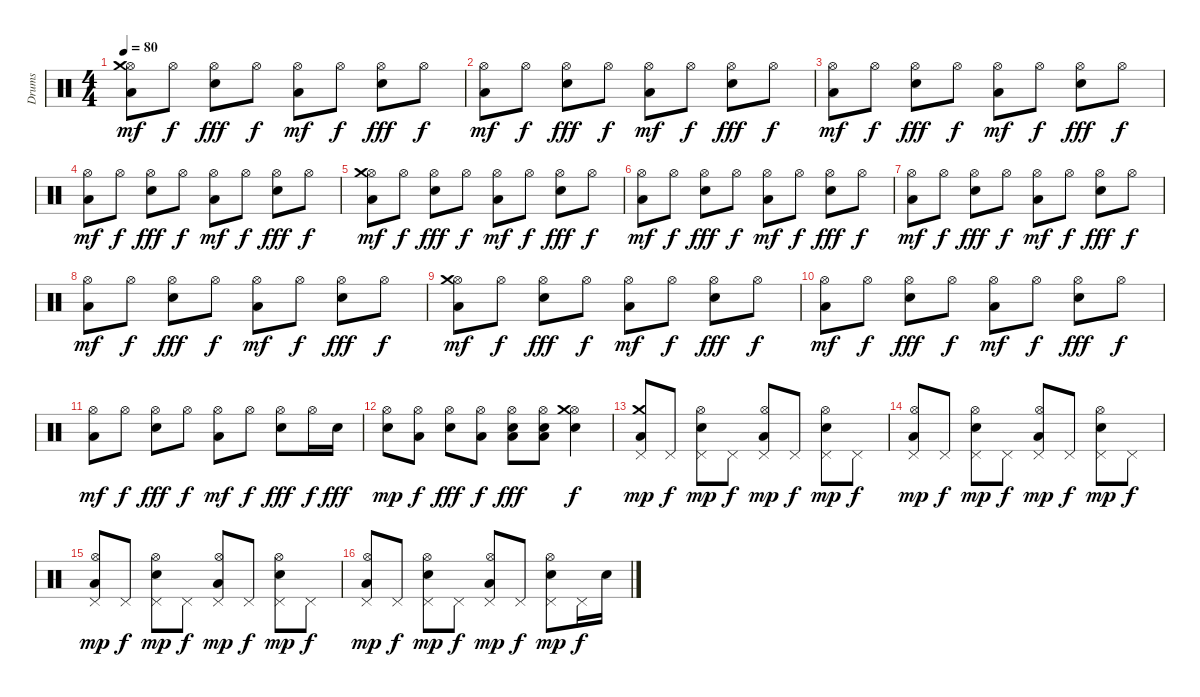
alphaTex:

\track ("Drums" "Drums") {instrument percussion}
\staff {score}
\articulation defaults
\ts (4 4)
\tempo 80
\clef neutral
\ks c
("Low Floor Tom (hit)" "Hi-Hat (open)" "Crash medium (hit)").8{dy mf} "Hi-Hat (open)".8{dy f} ("Electric Snare (hit)" "Hi-Hat (open)").8{dy fff} "Hi-Hat (open)".8{dy f} ("Low Floor Tom (hit)" "Hi-Hat (open)").8{dy mf} "Hi-Hat (open)".8{dy f} ("Electric Snare (hit)" "Hi-Hat (open)").8{dy fff} "Hi-Hat (open)".8{dy f} |
("Low Floor Tom (hit)" "Hi-Hat (open)").8{dy mf} "Hi-Hat (open)".8{dy f} ("Electric Snare (hit)" "Hi-Hat (open)").8{dy fff} "Hi-Hat (open)".8{dy f} ("Low Floor Tom (hit)" "Hi-Hat (open)").8{dy mf} "Hi-Hat (open)".8{dy f} ("Electric Snare (hit)" "Hi-Hat (open)").8{dy fff} "Hi-Hat (open)".8{dy f} |
("Low Floor Tom (hit)" "Hi-Hat (open)").8{dy mf} "Hi-Hat (open)".8{dy f} ("Electric Snare (hit)" "Hi-Hat (open)").8{dy fff} "Hi-Hat (open)".8{dy f} ("Low Floor Tom (hit)" "Hi-Hat (open)").8{dy mf} "Hi-Hat (open)".8{dy f} ("Electric Snare (hit)" "Hi-Hat (open)").8{dy fff} "Hi-Hat (open)".8{dy f} |
("Low Floor Tom (hit)" "Hi-Hat (open)").8{dy mf} "Hi-Hat (open)".8{dy f} ("Electric Snare (hit)" "Hi-Hat (open)").8{dy fff} "Hi-Hat (open)".8{dy f} ("Low Floor Tom (hit)" "Hi-Hat (open)").8{dy mf} "Hi-Hat (open)".8{dy f} ("Electric Snare (hit)" "Hi-Hat (open)").8{dy fff} "Hi-Hat (open)".8{dy f} |
("Low Floor Tom (hit)" "Hi-Hat (open)" "Crash medium (hit)").8{dy mf} "Hi-Hat (open)".8{dy f} ("Electric Snare (hit)" "Hi-Hat (open)").8{dy fff} "Hi-Hat (open)".8{dy f} ("Low Floor Tom (hit)" "Hi-Hat (open)").8{dy mf} "Hi-Hat (open)".8{dy f} ("Electric Snare (hit)" "Hi-Hat (open)").8{dy fff} "Hi-Hat (open)".8{dy f} |
("Low Floor Tom (hit)" "Hi-Hat (open)").8{dy mf} "Hi-Hat (open)".8{dy f} ("Electric Snare (hit)" "Hi-Hat (open)").8{dy fff} "Hi-Hat (open)".8{dy f} ("Low Floor Tom (hit)" "Hi-Hat (open)").8{dy mf} "Hi-Hat (open)".8{dy f} ("Electric Snare (hit)" "Hi-Hat (open)").8{dy fff} "Hi-Hat (open)".8{dy f} |
("Low Floor Tom (hit)" "Hi-Hat (open)").8{dy mf} "Hi-Hat (open)".8{dy f} ("Electric Snare (hit)" "Hi-Hat (open)").8{dy fff} "Hi-Hat (open)".8{dy f} ("Low Floor Tom (hit)" "Hi-Hat (open)").8{dy mf} "Hi-Hat (open)".8{dy f} ("Electric Snare (hit)" "Hi-Hat (open)").8{dy fff} "Hi-Hat (open)".8{dy f} |
("Low Floor Tom (hit)" "Hi-Hat (open)").8{dy mf} "Hi-Hat (open)".8{dy f} ("Electric Snare (hit)" "Hi-Hat (open)").8{dy fff} "Hi-Hat (open)".8{dy f} ("Low Floor Tom (hit)" "Hi-Hat (open)").8{dy mf} "Hi-Hat (open)".8{dy f} ("Electric Snare (hit)" "Hi-Hat (open)").8{dy fff} "Hi-Hat (open)".8{dy f} |
("Low Floor Tom (hit)" "Hi-Hat (open)" "Crash medium (hit)").8{dy mf} "Hi-Hat (open)".8{dy f} ("Electric Snare (hit)" "Hi-Hat (open)").8{dy fff} "Hi-Hat (open)".8{dy f} ("Low Floor Tom (hit)" "Hi-Hat (open)").8{dy mf} "Hi-Hat (open)".8{dy f} ("Electric Snare (hit)" "Hi-Hat (open)").8{dy fff} "Hi-Hat (open)".8{dy f} |
("Low Floor Tom (hit)" "Hi-Hat (open)").8{dy mf} "Hi-Hat (open)".8{dy f} ("Electric Snare (hit)" "Hi-Hat (open)").8{dy fff} "Hi-Hat (open)".8{dy f} ("Low Floor Tom (hit)" "Hi-Hat (open)").8{dy mf} "Hi-Hat (open)".8{dy f} ("Electric Snare (hit)" "Hi-Hat (open)").8{dy fff} "Hi-Hat (open)".8{dy f} |
("Low Floor Tom (hit)" "Hi-Hat (open)").8{dy mf} "Hi-Hat (open)".8{dy f} ("Electric Snare (hit)" "Hi-Hat (open)").8{dy fff} "Hi-Hat (open)".8{dy f} ("Low Floor Tom (hit)" "Hi-Hat (open)").8{dy mf} "Hi-Hat (open)".8{dy f} ("Electric Snare (hit)" "Hi-Hat (open)").8{dy fff} "Hi-Hat (open)".16{dy f} "Electric Snare (hit)".16{dy fff} |
("Electric Snare (hit)" "Hi-Hat (open)").8{dy mp} ("Low Floor Tom (hit)" "Hi-Hat (open)").8{dy f} ("Electric Snare (hit)" "Hi-Hat (open)").8{dy fff} ("Low Floor Tom (hit)" "Hi-Hat (open)").8{dy f} ("Low Floor Tom (hit)" "Hi-Hat (open)" "Electric Snare (hit)").8{dy fff} ("Low Floor Tom (hit)" "Hi-Hat (open)" "Electric Snare (hit)").8 ("Electric Snare (hit)" "Hi-Hat (open)" "Crash medium (hit)").4{dy f} |
("Low Floor Tom (hit)" "Pedal Hi-Hat (hit)" "Crash medium (hit)").8{dy mp} "Pedal Hi-Hat (hit)".8{dy f} ("Electric Snare (hit)" "Pedal Hi-Hat (hit)" "Hi-Hat (open)").8{dy mp} "Pedal Hi-Hat (hit)".8{dy f} ("Low Floor Tom (hit)" "Pedal Hi-Hat (hit)" "Hi-Hat (open)").8{dy mp} "Pedal Hi-Hat (hit)".8{dy f} ("Electric Snare (hit)" "Pedal Hi-Hat (hit)" "Hi-Hat (open)").8{dy mp} "Pedal Hi-Hat (hit)".8{dy f} |
("Low Floor Tom (hit)" "Pedal Hi-Hat (hit)" "Hi-Hat (open)").8{dy mp} "Pedal Hi-Hat (hit)".8{dy f} ("Electric Snare (hit)" "Pedal Hi-Hat (hit)" "Hi-Hat (open)").8{dy mp} "Pedal Hi-Hat (hit)".8{dy f} ("Low Floor Tom (hit)" "Pedal Hi-Hat (hit)" "Hi-Hat (open)").8{dy mp} "Pedal Hi-Hat (hit)".8{dy f} ("Electric Snare (hit)" "Pedal Hi-Hat (hit)" "Hi-Hat (open)").8{dy mp} "Pedal Hi-Hat (hit)".8{dy f} |
("Low Floor Tom (hit)" "Pedal Hi-Hat (hit)" "Hi-Hat (open)").8{dy mp} "Pedal Hi-Hat (hit)".8{dy f} ("Electric Snare (hit)" "Pedal Hi-Hat (hit)" "Hi-Hat (open)").8{dy mp} "Pedal Hi-Hat (hit)".8{dy f} ("Low Floor Tom (hit)" "Pedal Hi-Hat (hit)" "Hi-Hat (open)").8{dy mp} "Pedal Hi-Hat (hit)".8{dy f} ("Electric Snare (hit)" "Pedal Hi-Hat (hit)" "Hi-Hat (open)").8{dy mp} "Pedal Hi-Hat (hit)".8{dy f} |
("Low Floor Tom (hit)" "Pedal Hi-Hat (hit)" "Hi-Hat (open)").8{dy mp} "Pedal Hi-Hat (hit)".8{dy f} ("Electric Snare (hit)" "Pedal Hi-Hat (hit)" "Hi-Hat (open)").8{dy mp} "Pedal Hi-Hat (hit)".8{dy f} ("Low Floor Tom (hit)" "Pedal Hi-Hat (hit)" "Hi-Hat (open)").8{dy mp} "Pedal Hi-Hat (hit)".8{dy f} ("Electric Snare (hit)" "Pedal Hi-Hat (hit)" "Hi-Hat (open)").8{dy mp} "Pedal Hi-Hat (hit)".16{dy f} "Electric Snare (hit)".16
